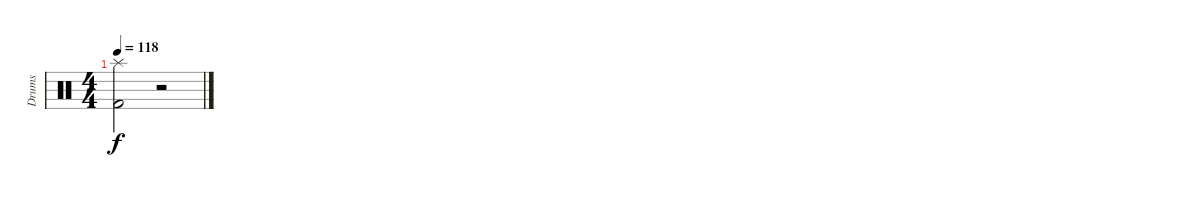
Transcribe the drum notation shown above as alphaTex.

\track ("Drums" "Drums") {instrument percussion}
\staff
\articulation defaults
\ts (4 4)
\tempo 118
\clef neutral
\ks c
("Splash (hit)" "Kick (hit) 2").2{dy f} r.2
